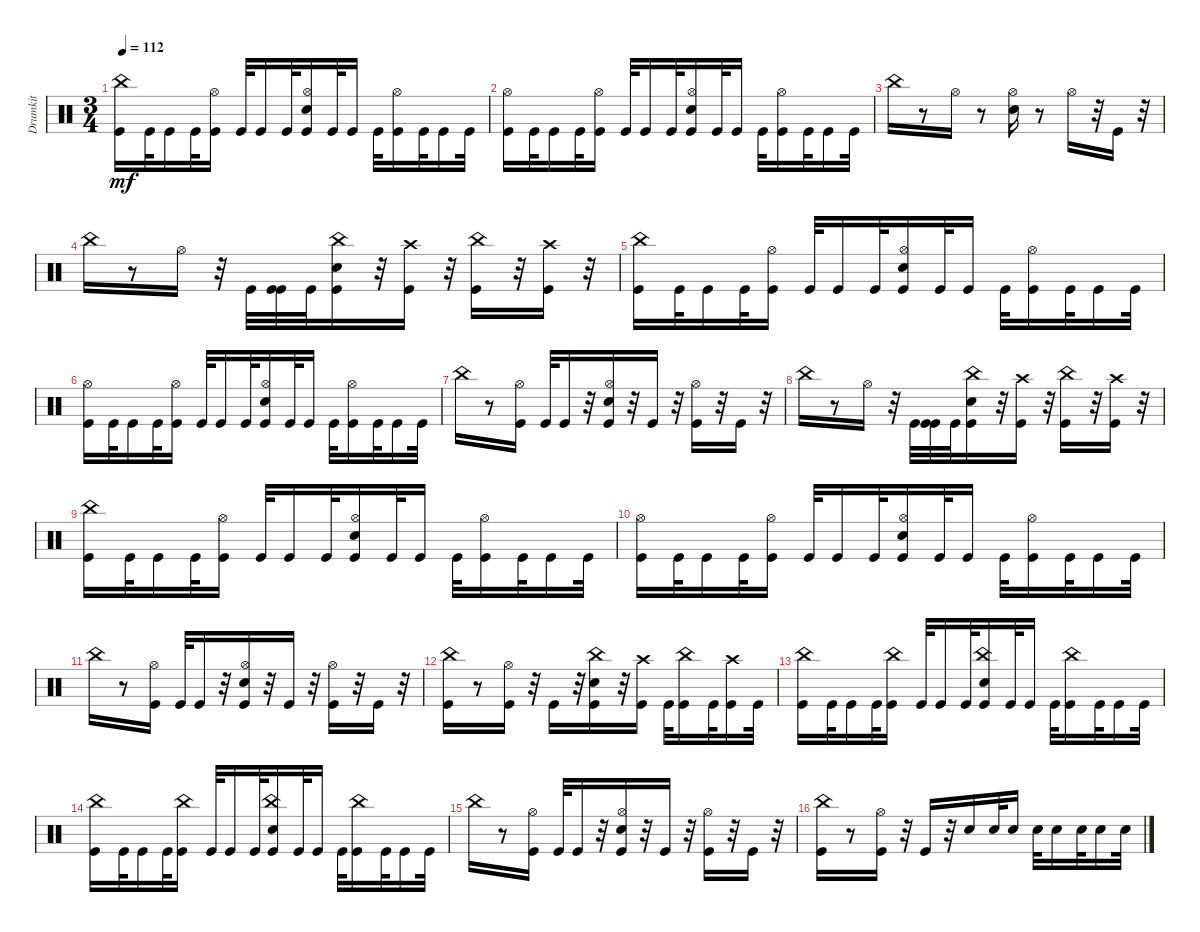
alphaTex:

\track ("Drumkit" "Drumkit") {instrument percussion}
\staff {score}
\articulation defaults
\ts (3 4)
\tempo 112
\clef neutral
\ks c
("Kick (hit)" "China (hit)").16{dy mf} "Kick (hit)".32 "Kick (hit)".16 "Kick (hit)".32 ("Kick (hit)" "Hi-Hat (open)").16 "Kick (hit)".32 "Kick (hit)".16 "Kick (hit)".32 ("Kick (hit)" "Snare (hit) 2" "Hi-Hat (open)").16 "Kick (hit)".32 "Kick (hit)".16 "Kick (hit)".32 ("Kick (hit)" "Hi-Hat (open)").16 "Kick (hit)".32 "Kick (hit)".16 "Kick (hit)".32 |
("Kick (hit)" "Hi-Hat (open)").16 "Kick (hit)".32 "Kick (hit)".16 "Kick (hit)".32 ("Kick (hit)" "Hi-Hat (open)").16 "Kick (hit)".32 "Kick (hit)".16 "Kick (hit)".32 ("Kick (hit)" "Snare (hit) 2" "Hi-Hat (open)").16 "Kick (hit)".32 "Kick (hit)".16 "Kick (hit)".32 ("Kick (hit)" "Hi-Hat (open)").16 "Kick (hit)".32 "Kick (hit)".16 "Kick (hit)".32 |
"China (hit)".16 r.8 "Hi-Hat (open)".16 r.8 ("Snare (hit) 2" "Hi-Hat (open)").16 r.8 "Hi-Hat (open)".16 r.32 "Kick (hit)".16 r.32 |
"China (hit)".16 r.8 "Hi-Hat (open)".16 r.32 "Kick (hit)".32 ("Kick (hit)" "Kick (hit)").32 "Kick (hit)".32 ("China (hit)" "Kick (hit)" "Snare (hit) 2").16 r.32 ("Kick (hit)" "Crash high (hit)").16 r.32 ("China (hit)" "Kick (hit)").16 r.32 ("Kick (hit)" "Crash high (hit)").16 r.32 |
("Kick (hit)" "China (hit)").16 "Kick (hit)".32 "Kick (hit)".16 "Kick (hit)".32 ("Kick (hit)" "Hi-Hat (open)").16 "Kick (hit)".32 "Kick (hit)".16 "Kick (hit)".32 ("Kick (hit)" "Snare (hit) 2" "Hi-Hat (open)").16 "Kick (hit)".32 "Kick (hit)".16 "Kick (hit)".32 ("Kick (hit)" "Hi-Hat (open)").16 "Kick (hit)".32 "Kick (hit)".16 "Kick (hit)".32 |
("Kick (hit)" "Hi-Hat (open)").16 "Kick (hit)".32 "Kick (hit)".16 "Kick (hit)".32 ("Kick (hit)" "Hi-Hat (open)").16 "Kick (hit)".32 "Kick (hit)".16 "Kick (hit)".32 ("Kick (hit)" "Snare (hit) 2" "Hi-Hat (open)").16 "Kick (hit)".32 "Kick (hit)".16 "Kick (hit)".32 ("Kick (hit)" "Hi-Hat (open)").16 "Kick (hit)".32 "Kick (hit)".16 "Kick (hit)".32 |
"China (hit)".16 r.8 ("Hi-Hat (open)" "Kick (hit)").16 "Kick (hit)".32 "Kick (hit)".16 r.32 ("Snare (hit) 2" "Hi-Hat (open)" "Kick (hit)").16 r.32 "Kick (hit)".16 r.32 ("Hi-Hat (open)" "Kick (hit)").16 r.32 "Kick (hit)".16 r.32 |
"China (hit)".16 r.8 "Hi-Hat (open)".16 r.32 "Kick (hit)".32 ("Kick (hit)" "Kick (hit)").32 "Kick (hit)".32 ("China (hit)" "Kick (hit)" "Snare (hit) 2").16 r.32 ("Kick (hit)" "Crash high (hit)").16 r.32 ("China (hit)" "Kick (hit)").16 r.32 ("Kick (hit)" "Crash high (hit)").16 r.32 |
("Kick (hit)" "China (hit)").16 "Kick (hit)".32 "Kick (hit)".16 "Kick (hit)".32 ("Kick (hit)" "Hi-Hat (open)").16 "Kick (hit)".32 "Kick (hit)".16 "Kick (hit)".32 ("Kick (hit)" "Snare (hit) 2" "Hi-Hat (open)").16 "Kick (hit)".32 "Kick (hit)".16 "Kick (hit)".32 ("Kick (hit)" "Hi-Hat (open)").16 "Kick (hit)".32 "Kick (hit)".16 "Kick (hit)".32 |
("Kick (hit)" "Hi-Hat (open)").16 "Kick (hit)".32 "Kick (hit)".16 "Kick (hit)".32 ("Kick (hit)" "Hi-Hat (open)").16 "Kick (hit)".32 "Kick (hit)".16 "Kick (hit)".32 ("Kick (hit)" "Snare (hit) 2" "Hi-Hat (open)").16 "Kick (hit)".32 "Kick (hit)".16 "Kick (hit)".32 ("Kick (hit)" "Hi-Hat (open)").16 "Kick (hit)".32 "Kick (hit)".16 "Kick (hit)".32 |
"China (hit)".16 r.8 ("Hi-Hat (open)" "Kick (hit)").16 "Kick (hit)".32 "Kick (hit)".16 r.32 ("Snare (hit) 2" "Hi-Hat (open)" "Kick (hit)").16 r.32 "Kick (hit)".16 r.32 ("Hi-Hat (open)" "Kick (hit)").16 r.32 "Kick (hit)".16 r.32 |
("China (hit)" "Kick (hit)").16 r.8 ("Hi-Hat (open)" "Kick (hit)").16 r.32 "Kick (hit)".16 r.32 ("China (hit)" "Kick (hit)" "Snare (hit) 2").16 r.32 ("Kick (hit)" "Crash high (hit)").16 "Kick (hit)".32 ("China (hit)" "Kick (hit)").16 "Kick (hit)".32 ("Kick (hit)" "Crash high (hit)").16 "Kick (hit)".32 |
("Kick (hit)" "China (hit)").16 "Kick (hit)".32 "Kick (hit)".16 "Kick (hit)".32 ("Kick (hit)" "China (hit)").16 "Kick (hit)".32 "Kick (hit)".16 "Kick (hit)".32 ("Kick (hit)" "Snare (hit) 2" "China (hit)").16 "Kick (hit)".32 "Kick (hit)".16 "Kick (hit)".32 ("Kick (hit)" "China (hit)").16 "Kick (hit)".32 "Kick (hit)".16 "Kick (hit)".32 |
("Kick (hit)" "China (hit)").16 "Kick (hit)".32 "Kick (hit)".16 "Kick (hit)".32 ("Kick (hit)" "China (hit)").16 "Kick (hit)".32 "Kick (hit)".16 "Kick (hit)".32 ("Kick (hit)" "Snare (hit) 2" "China (hit)").16 "Kick (hit)".32 "Kick (hit)".16 "Kick (hit)".32 ("Kick (hit)" "China (hit)").16 "Kick (hit)".32 "Kick (hit)".16 "Kick (hit)".32 |
"China (hit)".16 r.8 ("Hi-Hat (open)" "Kick (hit)").16 "Kick (hit)".32 "Kick (hit)".16 r.32 ("Snare (hit) 2" "Hi-Hat (open)" "Kick (hit)").16 r.32 "Kick (hit)".16 r.32 ("Hi-Hat (open)" "Kick (hit)").16 r.32 "Kick (hit)".16 r.32 |
("China (hit)" "Kick (hit)").16 r.8 ("Hi-Hat (open)" "Kick (hit)").16 r.32 "Kick (hit)".16 r.32 "Snare (hit) 2".16 "Snare (hit) 2".32 "Snare (hit) 2".16 "Snare (hit) 2".32 "Snare (hit) 2".16 "Snare (hit) 2".32 "Snare (hit) 2".16 "Snare (hit) 2".32
